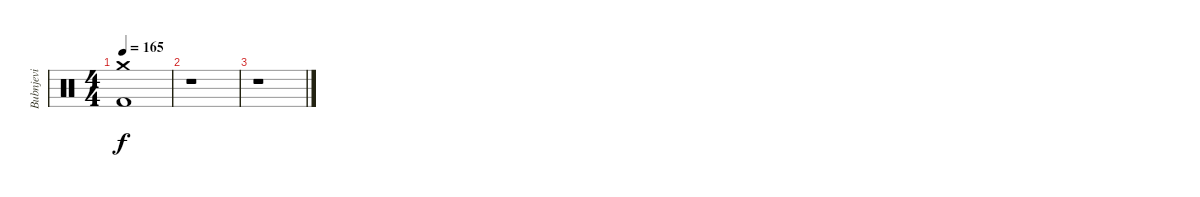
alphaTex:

\track ("Bubnjevi" "Bubnjevi") {instrument percussion}
\staff {score}
\articulation defaults
\ts (4 4)
\tempo 165
\clef neutral
\ks c
("Crash medium (hit)" "Kick (hit) 2").1{dy f} |
r.1 |
r.1
